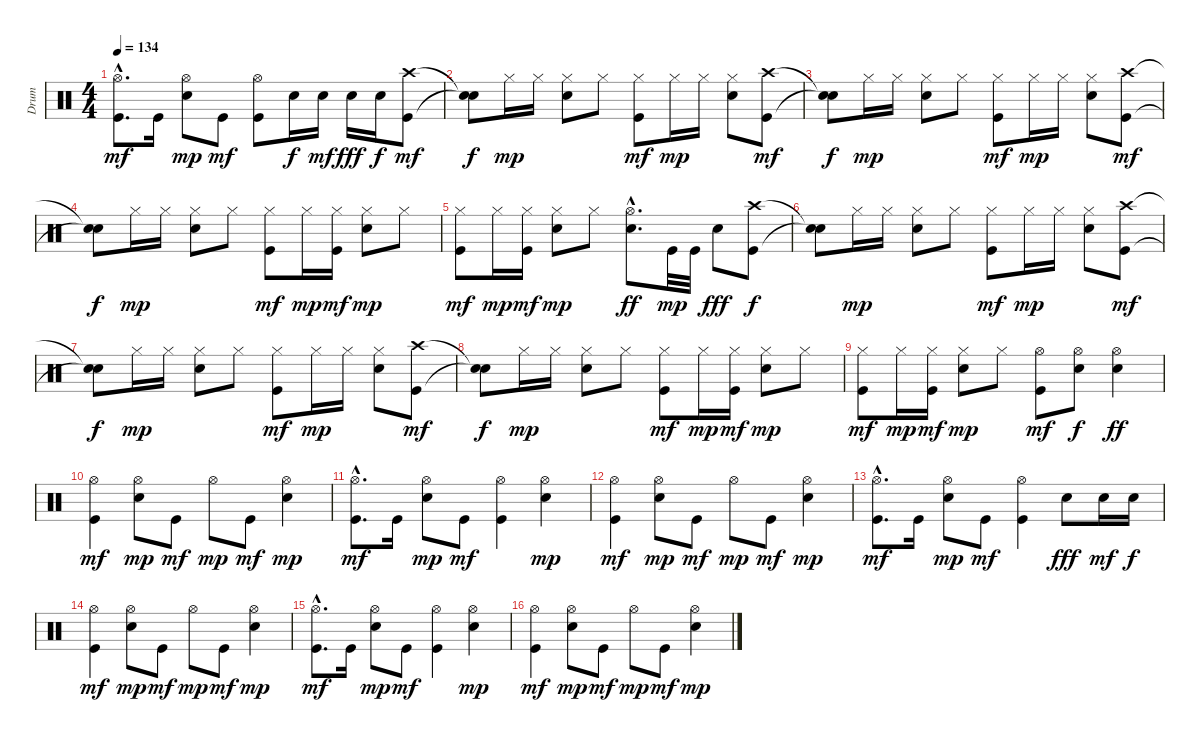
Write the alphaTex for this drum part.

\track ("Drum" "Drum") {instrument percussion}
\staff {score}
\articulation defaults
\ts (4 4)
\tempo 134
\clef neutral
\ks c
("Hi-Hat (open)"{hac} "Kick (hit)"{hac}).8{d dy mf} "Kick (hit)".16 ("Hi-Hat (open)" "Electric Snare (hit)").8{dy mp} "Kick (hit)".8{dy mf} ("Hi-Hat (open)" "Kick (hit)").8 "Electric Snare (hit)".16{dy f} "Electric Snare (hit)".16{dy mf} "Electric Snare (hit)".16{dy fff} "Electric Snare (hit)".16{dy f} ("Crash high (hit)" "Kick (hit)").8{dy mf} |
("Snare (hit)"{t} "Snare (hit)"{t}).8{dy f} "Hi-Hat (closed)".16{dy mp} "Hi-Hat (closed)".16 ("Hi-Hat (closed)" "Electric Snare (hit)").8 "Hi-Hat (closed)".8 ("Hi-Hat (closed)" "Kick (hit)").8{dy mf} "Hi-Hat (closed)".16{dy mp} "Hi-Hat (closed)".16 ("Hi-Hat (closed)" "Electric Snare (hit)").8 ("Crash high (hit)" "Kick (hit)").8{dy mf} |
("Snare (hit)"{t} "Snare (hit)"{t}).8{dy f} "Hi-Hat (closed)".16{dy mp} "Hi-Hat (closed)".16 ("Hi-Hat (closed)" "Electric Snare (hit)").8 "Hi-Hat (closed)".8 ("Hi-Hat (closed)" "Kick (hit)").8{dy mf} "Hi-Hat (closed)".16{dy mp} "Hi-Hat (closed)".16 ("Hi-Hat (closed)" "Electric Snare (hit)").8 ("Crash high (hit)" "Kick (hit)").8{dy mf} |
("Snare (hit)"{t} "Snare (hit)"{t}).8{dy f} "Hi-Hat (closed)".16{dy mp} "Hi-Hat (closed)".16 ("Hi-Hat (closed)" "Electric Snare (hit)").8 "Hi-Hat (closed)".8 ("Hi-Hat (closed)" "Kick (hit)").8{dy mf} "Hi-Hat (closed)".16{dy mp} ("Hi-Hat (closed)" "Kick (hit)").16{dy mf} ("Hi-Hat (closed)" "Electric Snare (hit)").8{dy mp} "Hi-Hat (closed)".8 |
("Hi-Hat (closed)" "Kick (hit)").8{dy mf} "Hi-Hat (closed)".16{dy mp} ("Hi-Hat (closed)" "Kick (hit)").16{dy mf} ("Hi-Hat (closed)" "Electric Snare (hit)").8{dy mp} "Hi-Hat (closed)".8 ("Hi-Hat (open)"{hac} "Electric Snare (hit)"{hac}).8{d dy ff} "Kick (hit)".32{dy mp} "Kick (hit)".32 "Electric Snare (hit)".8{dy fff} ("Crash high (hit)" "Kick (hit)").8{dy f} |
("Snare (hit)"{t} "Snare (hit)"{t}).8 "Hi-Hat (closed)".16{dy mp} "Hi-Hat (closed)".16 ("Hi-Hat (closed)" "Electric Snare (hit)").8 "Hi-Hat (closed)".8 ("Hi-Hat (closed)" "Kick (hit)").8{dy mf} "Hi-Hat (closed)".16{dy mp} "Hi-Hat (closed)".16 ("Hi-Hat (closed)" "Electric Snare (hit)").8 ("Crash high (hit)" "Kick (hit)").8{dy mf} |
("Snare (hit)"{t} "Snare (hit)"{t}).8{dy f} "Hi-Hat (closed)".16{dy mp} "Hi-Hat (closed)".16 ("Hi-Hat (closed)" "Electric Snare (hit)").8 "Hi-Hat (closed)".8 ("Hi-Hat (closed)" "Kick (hit)").8{dy mf} "Hi-Hat (closed)".16{dy mp} "Hi-Hat (closed)".16 ("Hi-Hat (closed)" "Electric Snare (hit)").8 ("Crash high (hit)" "Kick (hit)").8{dy mf} |
("Snare (hit)"{t} "Snare (hit)"{t}).8{dy f} "Hi-Hat (closed)".16{dy mp} "Hi-Hat (closed)".16 ("Hi-Hat (closed)" "Electric Snare (hit)").8 "Hi-Hat (closed)".8 ("Hi-Hat (closed)" "Kick (hit)").8{dy mf} "Hi-Hat (closed)".16{dy mp} ("Hi-Hat (closed)" "Kick (hit)").16{dy mf} ("Hi-Hat (closed)" "Electric Snare (hit)").8{dy mp} "Hi-Hat (closed)".8 |
("Hi-Hat (closed)" "Kick (hit)").8{dy mf} "Hi-Hat (closed)".16{dy mp} ("Hi-Hat (closed)" "Kick (hit)").16{dy mf} ("Hi-Hat (closed)" "Electric Snare (hit)").8{dy mp} "Hi-Hat (closed)".8 ("Hi-Hat (open)" "Kick (hit)").8{dy mf} ("Hi-Hat (open)" "Electric Snare (hit)").8{dy f} ("Hi-Hat (open)" "Electric Snare (hit)").4{dy ff} |
("Hi-Hat (open)" "Kick (hit)").4{dy mf} ("Hi-Hat (open)" "Electric Snare (hit)").8{dy mp} "Kick (hit)".8{dy mf} "Hi-Hat (open)".8{dy mp} "Kick (hit)".8{dy mf} ("Hi-Hat (open)" "Electric Snare (hit)").4{dy mp} |
("Hi-Hat (open)"{hac} "Kick (hit)"{hac}).8{d dy mf} "Kick (hit)".16 ("Hi-Hat (open)" "Electric Snare (hit)").8{dy mp} "Kick (hit)".8{dy mf} ("Hi-Hat (open)" "Kick (hit)").4 ("Hi-Hat (open)" "Electric Snare (hit)").4{dy mp} |
("Hi-Hat (open)" "Kick (hit)").4{dy mf} ("Hi-Hat (open)" "Electric Snare (hit)").8{dy mp} "Kick (hit)".8{dy mf} "Hi-Hat (open)".8{dy mp} "Kick (hit)".8{dy mf} ("Hi-Hat (open)" "Electric Snare (hit)").4{dy mp} |
("Hi-Hat (open)"{hac} "Kick (hit)"{hac}).8{d dy mf} "Kick (hit)".16 ("Hi-Hat (open)" "Electric Snare (hit)").8{dy mp} "Kick (hit)".8{dy mf} ("Hi-Hat (open)" "Kick (hit)").4 "Electric Snare (hit)".8{dy fff} "Electric Snare (hit)".16{dy mf} "Electric Snare (hit)".16{dy f} |
("Hi-Hat (open)" "Kick (hit)").4{dy mf} ("Hi-Hat (open)" "Electric Snare (hit)").8{dy mp} "Kick (hit)".8{dy mf} "Hi-Hat (open)".8{dy mp} "Kick (hit)".8{dy mf} ("Hi-Hat (open)" "Electric Snare (hit)").4{dy mp} |
("Hi-Hat (open)"{hac} "Kick (hit)"{hac}).8{d dy mf} "Kick (hit)".16 ("Hi-Hat (open)" "Electric Snare (hit)").8{dy mp} "Kick (hit)".8{dy mf} ("Hi-Hat (open)" "Kick (hit)").4 ("Hi-Hat (open)" "Electric Snare (hit)").4{dy mp} |
("Hi-Hat (open)" "Kick (hit)").4{dy mf} ("Hi-Hat (open)" "Electric Snare (hit)").8{dy mp} "Kick (hit)".8{dy mf} "Hi-Hat (open)".8{dy mp} "Kick (hit)".8{dy mf} ("Hi-Hat (open)" "Electric Snare (hit)").4{dy mp}
